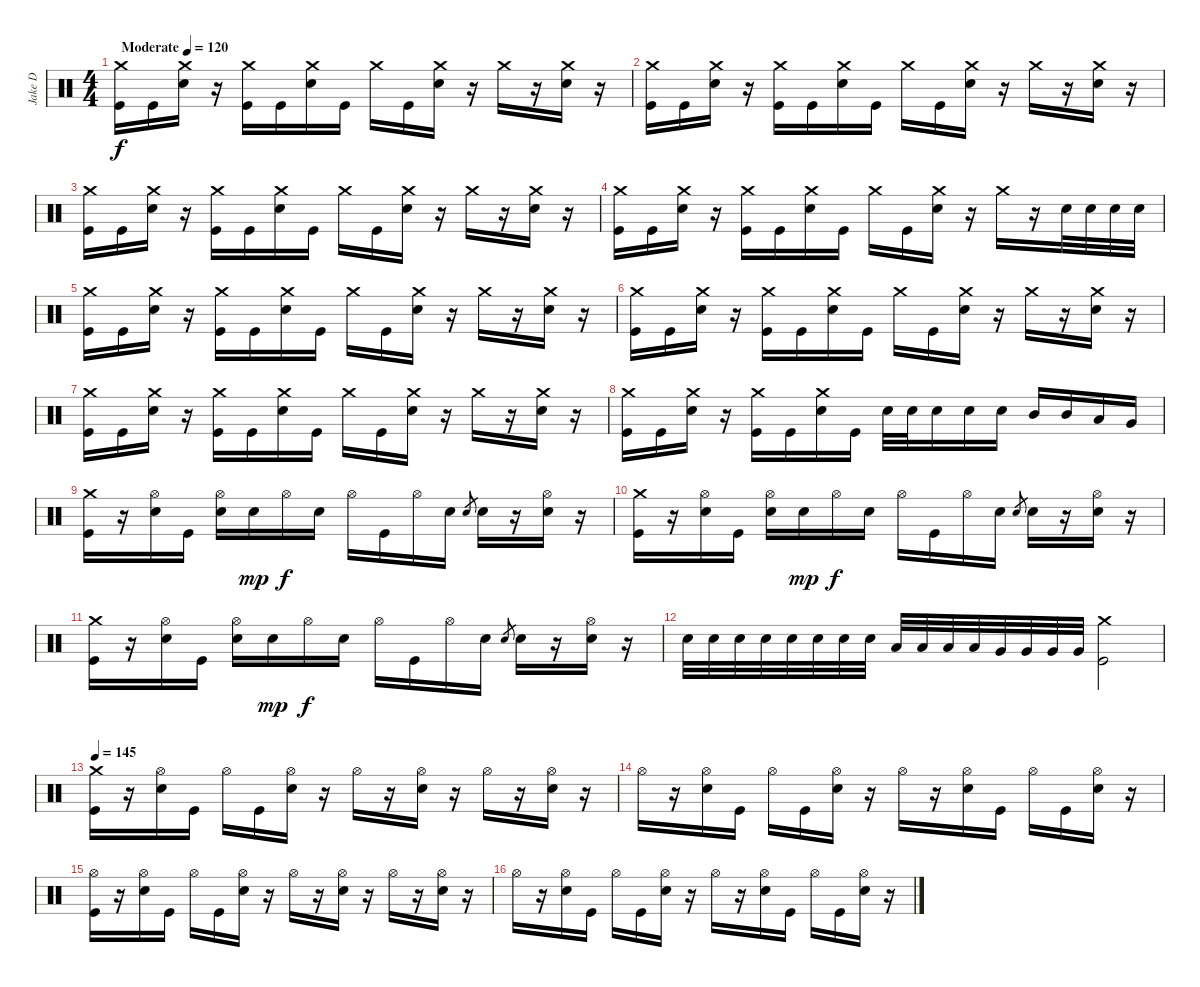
\track ("Jake D" "Jake D") {instrument percussion}
\staff {score}
\articulation defaults
\ts (4 4)
\tempo (120 "Moderate")
\clef neutral
\ks c
("Crash medium (hit)" "Kick (hit)").16{dy f} "Kick (hit)".16 ("Crash medium (hit)" "Electric Snare (hit)").16 r.16 ("Crash medium (hit)" "Kick (hit)").16 "Kick (hit)".16 ("Crash medium (hit)" "Electric Snare (hit)").16 "Kick (hit)".16 "Crash medium (hit)".16 "Kick (hit)".16 ("Crash medium (hit)" "Electric Snare (hit)").16 r.16 "Crash medium (hit)".16 r.16 ("Crash medium (hit)" "Electric Snare (hit)").16 r.16 |
("Crash medium (hit)" "Kick (hit)").16 "Kick (hit)".16 ("Crash medium (hit)" "Electric Snare (hit)").16 r.16 ("Crash medium (hit)" "Kick (hit)").16 "Kick (hit)".16 ("Crash medium (hit)" "Electric Snare (hit)").16 "Kick (hit)".16 "Crash medium (hit)".16 "Kick (hit)".16 ("Crash medium (hit)" "Electric Snare (hit)").16 r.16 "Crash medium (hit)".16 r.16 ("Crash medium (hit)" "Electric Snare (hit)").16 r.16 |
("Crash medium (hit)" "Kick (hit)").16 "Kick (hit)".16 ("Crash medium (hit)" "Electric Snare (hit)").16 r.16 ("Crash medium (hit)" "Kick (hit)").16 "Kick (hit)".16 ("Crash medium (hit)" "Electric Snare (hit)").16 "Kick (hit)".16 "Crash medium (hit)".16 "Kick (hit)".16 ("Crash medium (hit)" "Electric Snare (hit)").16 r.16 "Crash medium (hit)".16 r.16 ("Crash medium (hit)" "Electric Snare (hit)").16 r.16 |
("Crash medium (hit)" "Kick (hit)").16 "Kick (hit)".16 ("Crash medium (hit)" "Electric Snare (hit)").16 r.16 ("Crash medium (hit)" "Kick (hit)").16 "Kick (hit)".16 ("Crash medium (hit)" "Electric Snare (hit)").16 "Kick (hit)".16 "Crash medium (hit)".16 "Kick (hit)".16 ("Crash medium (hit)" "Electric Snare (hit)").16 r.16 "Crash medium (hit)".16 r.16 "Electric Snare (hit)".32 "Electric Snare (hit)".32 "Electric Snare (hit)".32 "Electric Snare (hit)".32 |
("Crash medium (hit)" "Kick (hit)").16 "Kick (hit)".16 ("Crash medium (hit)" "Electric Snare (hit)").16 r.16 ("Crash medium (hit)" "Kick (hit)").16 "Kick (hit)".16 ("Crash medium (hit)" "Electric Snare (hit)").16 "Kick (hit)".16 "Crash medium (hit)".16 "Kick (hit)".16 ("Crash medium (hit)" "Electric Snare (hit)").16 r.16 "Crash medium (hit)".16 r.16 ("Crash medium (hit)" "Electric Snare (hit)").16 r.16 |
("Crash medium (hit)" "Kick (hit)").16 "Kick (hit)".16 ("Crash medium (hit)" "Electric Snare (hit)").16 r.16 ("Crash medium (hit)" "Kick (hit)").16 "Kick (hit)".16 ("Crash medium (hit)" "Electric Snare (hit)").16 "Kick (hit)".16 "Crash medium (hit)".16 "Kick (hit)".16 ("Crash medium (hit)" "Electric Snare (hit)").16 r.16 "Crash medium (hit)".16 r.16 ("Crash medium (hit)" "Electric Snare (hit)").16 r.16 |
("Crash medium (hit)" "Kick (hit)").16 "Kick (hit)".16 ("Crash medium (hit)" "Electric Snare (hit)").16 r.16 ("Crash medium (hit)" "Kick (hit)").16 "Kick (hit)".16 ("Crash medium (hit)" "Electric Snare (hit)").16 "Kick (hit)".16 "Crash medium (hit)".16 "Kick (hit)".16 ("Crash medium (hit)" "Electric Snare (hit)").16 r.16 "Crash medium (hit)".16 r.16 ("Crash medium (hit)" "Electric Snare (hit)").16 r.16 |
("Crash medium (hit)" "Kick (hit)").16 "Kick (hit)".16 ("Crash medium (hit)" "Electric Snare (hit)").16 r.16 ("Crash medium (hit)" "Kick (hit)").16 "Kick (hit)".16 ("Crash medium (hit)" "Electric Snare (hit)").16 "Kick (hit)".16 "Electric Snare (hit)".32 "Electric Snare (hit)".32 "Electric Snare (hit)".16 "Electric Snare (hit)".16 "Electric Snare (hit)".16 "Mid Tom (hit)".16 "Mid Tom (hit)".16 "Low Tom (hit)".16 "Very Low Tom (hit)".16 |
("Crash medium (hit)" "Kick (hit)").16 r.16 ("Hi-Hat (open)" "Electric Snare (hit)").16 "Kick (hit)".16 ("Hi-Hat (open)" "Electric Snare (hit)").16 "Electric Snare (hit)".16{dy mp} "Hi-Hat (open)".16{dy f} "Electric Snare (hit)".16 "Hi-Hat (open)".16 "Kick (hit)".16 "Hi-Hat (open)".16 "Electric Snare (hit)".16 "Electric Snare (hit)".8{gr} "Electric Snare (hit)".16 r.16 ("Hi-Hat (open)" "Electric Snare (hit)").16 r.16 |
("Crash medium (hit)" "Kick (hit)").16 r.16 ("Hi-Hat (open)" "Electric Snare (hit)").16 "Kick (hit)".16 ("Hi-Hat (open)" "Electric Snare (hit)").16 "Electric Snare (hit)".16{dy mp} "Hi-Hat (open)".16{dy f} "Electric Snare (hit)".16 "Hi-Hat (open)".16 "Kick (hit)".16 "Hi-Hat (open)".16 "Electric Snare (hit)".16 "Electric Snare (hit)".8{gr} "Electric Snare (hit)".16 r.16 ("Hi-Hat (open)" "Electric Snare (hit)").16 r.16 |
("Crash medium (hit)" "Kick (hit)").16 r.16 ("Hi-Hat (open)" "Electric Snare (hit)").16 "Kick (hit)".16 ("Hi-Hat (open)" "Electric Snare (hit)").16 "Electric Snare (hit)".16{dy mp} "Hi-Hat (open)".16{dy f} "Electric Snare (hit)".16 "Hi-Hat (open)".16 "Kick (hit)".16 "Hi-Hat (open)".16 "Electric Snare (hit)".16 "Electric Snare (hit)".8{gr} "Electric Snare (hit)".16 r.16 ("Hi-Hat (open)" "Electric Snare (hit)").16 r.16 |
"Electric Snare (hit)".32 "Electric Snare (hit)".32 "Electric Snare (hit)".32 "Electric Snare (hit)".32 "Electric Snare (hit)".32 "Electric Snare (hit)".32 "Electric Snare (hit)".32 "Electric Snare (hit)".32 "Low Tom (hit)".32 "Low Tom (hit)".32 "Low Tom (hit)".32 "Low Tom (hit)".32 "Very Low Tom (hit)".32 "Very Low Tom (hit)".32 "Very Low Tom (hit)".32 "Very Low Tom (hit)".32 ("Crash medium (hit)" "Kick (hit)").2 |
\tempo 145
("Crash medium (hit)" "Kick (hit)").16 r.16 ("Hi-Hat (open)" "Electric Snare (hit)").16 "Kick (hit)".16 "Hi-Hat (open)".16 "Kick (hit)".16 ("Hi-Hat (open)" "Electric Snare (hit)").16 r.16 "Hi-Hat (open)".16 r.16 ("Hi-Hat (open)" "Electric Snare (hit)").16 r.16 "Hi-Hat (open)".16 r.16 ("Hi-Hat (open)" "Electric Snare (hit)").16 r.16 |
"Hi-Hat (open)".16 r.16 ("Hi-Hat (open)" "Electric Snare (hit)").16 "Kick (hit)".16 "Hi-Hat (open)".16 "Kick (hit)".16 ("Hi-Hat (open)" "Electric Snare (hit)").16 r.16 "Hi-Hat (open)".16 r.16 ("Hi-Hat (open)" "Electric Snare (hit)").16 "Kick (hit)".16 "Hi-Hat (open)".16 "Kick (hit)".16 ("Hi-Hat (open)" "Electric Snare (hit)").16 r.16 |
("Hi-Hat (open)" "Kick (hit)").16 r.16 ("Hi-Hat (open)" "Electric Snare (hit)").16 "Kick (hit)".16 "Hi-Hat (open)".16 "Kick (hit)".16 ("Hi-Hat (open)" "Electric Snare (hit)").16 r.16 "Hi-Hat (open)".16 r.16 ("Hi-Hat (open)" "Electric Snare (hit)").16 r.16 "Hi-Hat (open)".16 r.16 ("Hi-Hat (open)" "Electric Snare (hit)").16 r.16 |
"Hi-Hat (open)".16 r.16 ("Hi-Hat (open)" "Electric Snare (hit)").16 "Kick (hit)".16 "Hi-Hat (open)".16 "Kick (hit)".16 ("Hi-Hat (open)" "Electric Snare (hit)").16 r.16 "Hi-Hat (open)".16 r.16 ("Hi-Hat (open)" "Electric Snare (hit)").16 "Kick (hit)".16 "Hi-Hat (open)".16 "Kick (hit)".16 ("Hi-Hat (open)" "Electric Snare (hit)").16 r.16
